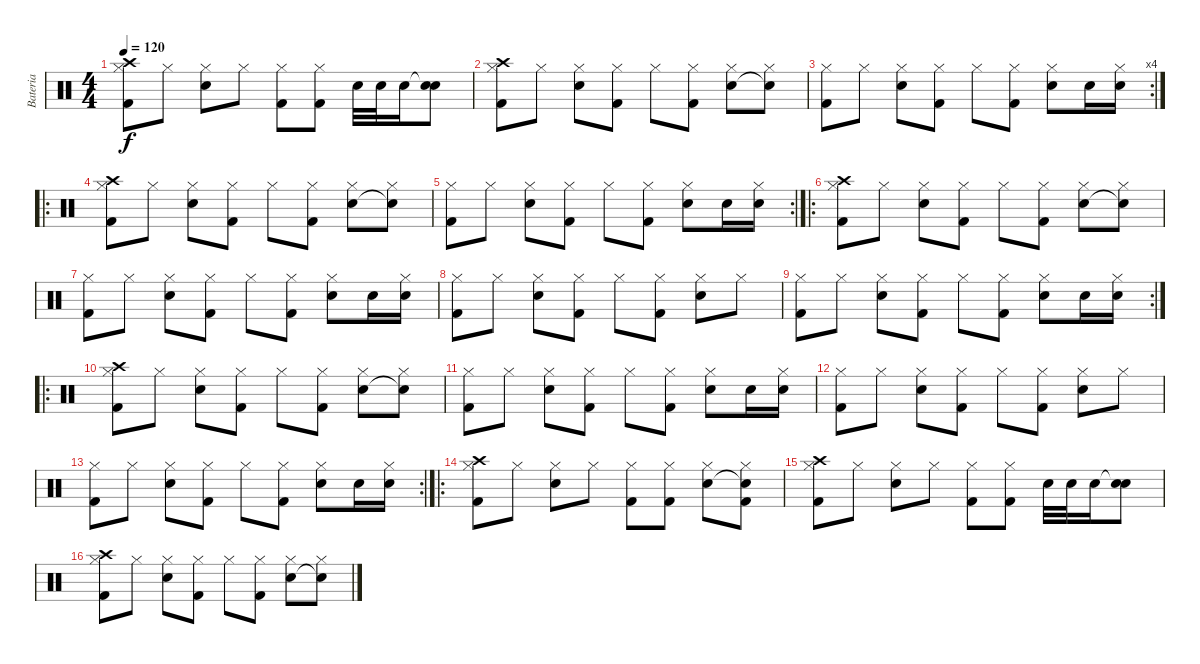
\track ("Bateria" "Bateria") {instrument percussion}
\staff {score}
\articulation defaults
\ts (4 4)
\tempo 120
\clef neutral
\ks c
("Hi-Hat (closed)" "Crash high (hit)" "Kick (hit) 2").8{dy f} "Hi-Hat (closed)".8 ("Hi-Hat (closed)" "Snare (hit) 2").8 "Hi-Hat (closed)".8 ("Hi-Hat (closed)" "Kick (hit) 2").8 ("Hi-Hat (closed)" "Kick (hit) 2").8 "Snare (hit) 2".32 "Snare (hit) 2".32 "Snare (hit) 2".16 ("Snare (hit)"{t} "Snare (hit) 2").8 |
("Hi-Hat (closed)" "Crash high (hit)" "Kick (hit) 2").8 "Hi-Hat (closed)".8 ("Hi-Hat (closed)" "Snare (hit) 2").8 ("Hi-Hat (closed)" "Kick (hit) 2").8 "Hi-Hat (closed)".8 ("Hi-Hat (closed)" "Kick (hit) 2").8 ("Hi-Hat (closed)" "Snare (hit) 2").8 ("Hi-Hat (closed)" "Snare (hit)"{t}).8 |
\rc 4
("Hi-Hat (closed)" "Kick (hit) 2").8 "Hi-Hat (closed)".8 ("Hi-Hat (closed)" "Snare (hit) 2").8 ("Hi-Hat (closed)" "Kick (hit) 2").8 "Hi-Hat (closed)".8 ("Hi-Hat (closed)" "Kick (hit) 2").8 ("Hi-Hat (closed)" "Snare (hit) 2").8 "Snare (hit) 2".16 ("Hi-Hat (closed)" "Snare (hit) 2").16 |
\ro
("Hi-Hat (closed)" "Crash high (hit)" "Kick (hit) 2").8 "Hi-Hat (closed)".8 ("Hi-Hat (closed)" "Snare (hit) 2").8 ("Hi-Hat (closed)" "Kick (hit) 2").8 "Hi-Hat (closed)".8 ("Hi-Hat (closed)" "Kick (hit) 2").8 ("Hi-Hat (closed)" "Snare (hit) 2").8 ("Hi-Hat (closed)" "Snare (hit)"{t}).8 |
\rc 2
("Hi-Hat (closed)" "Kick (hit) 2").8 "Hi-Hat (closed)".8 ("Hi-Hat (closed)" "Snare (hit) 2").8 ("Hi-Hat (closed)" "Kick (hit) 2").8 "Hi-Hat (closed)".8 ("Hi-Hat (closed)" "Kick (hit) 2").8 ("Hi-Hat (closed)" "Snare (hit) 2").8 "Snare (hit) 2".16 ("Hi-Hat (closed)" "Snare (hit) 2").16 |
\ro
("Hi-Hat (closed)" "Crash high (hit)" "Kick (hit) 2").8 "Hi-Hat (closed)".8 ("Hi-Hat (closed)" "Snare (hit) 2").8 ("Hi-Hat (closed)" "Kick (hit) 2").8 "Hi-Hat (closed)".8 ("Hi-Hat (closed)" "Kick (hit) 2").8 ("Hi-Hat (closed)" "Snare (hit) 2").8 ("Hi-Hat (closed)" "Snare (hit)"{t}).8 |
("Hi-Hat (closed)" "Kick (hit) 2").8 "Hi-Hat (closed)".8 ("Hi-Hat (closed)" "Snare (hit) 2").8 ("Hi-Hat (closed)" "Kick (hit) 2").8 "Hi-Hat (closed)".8 ("Hi-Hat (closed)" "Kick (hit) 2").8 ("Hi-Hat (closed)" "Snare (hit) 2").8 "Snare (hit) 2".16 ("Hi-Hat (closed)" "Snare (hit) 2").16 |
("Hi-Hat (closed)" "Kick (hit) 2").8 "Hi-Hat (closed)".8 ("Hi-Hat (closed)" "Snare (hit) 2").8 ("Hi-Hat (closed)" "Kick (hit) 2").8 "Hi-Hat (closed)".8 ("Hi-Hat (closed)" "Kick (hit) 2").8 ("Hi-Hat (closed)" "Snare (hit) 2").8 "Hi-Hat (closed)".8 |
\rc 2
("Hi-Hat (closed)" "Kick (hit) 2").8 "Hi-Hat (closed)".8 ("Hi-Hat (closed)" "Snare (hit) 2").8 ("Hi-Hat (closed)" "Kick (hit) 2").8 "Hi-Hat (closed)".8 ("Hi-Hat (closed)" "Kick (hit) 2").8 ("Hi-Hat (closed)" "Snare (hit) 2").8 "Snare (hit) 2".16 ("Hi-Hat (closed)" "Snare (hit) 2").16 |
\ro
("Hi-Hat (closed)" "Crash high (hit)" "Kick (hit) 2").8 "Hi-Hat (closed)".8 ("Hi-Hat (closed)" "Snare (hit) 2").8 ("Hi-Hat (closed)" "Kick (hit) 2").8 "Hi-Hat (closed)".8 ("Hi-Hat (closed)" "Kick (hit) 2").8 ("Hi-Hat (closed)" "Snare (hit) 2").8 ("Hi-Hat (closed)" "Snare (hit)"{t}).8 |
("Hi-Hat (closed)" "Kick (hit) 2").8 "Hi-Hat (closed)".8 ("Hi-Hat (closed)" "Snare (hit) 2").8 ("Hi-Hat (closed)" "Kick (hit) 2").8 "Hi-Hat (closed)".8 ("Hi-Hat (closed)" "Kick (hit) 2").8 ("Hi-Hat (closed)" "Snare (hit) 2").8 "Snare (hit) 2".16 ("Hi-Hat (closed)" "Snare (hit) 2").16 |
("Hi-Hat (closed)" "Kick (hit) 2").8 "Hi-Hat (closed)".8 ("Hi-Hat (closed)" "Snare (hit) 2").8 ("Hi-Hat (closed)" "Kick (hit) 2").8 "Hi-Hat (closed)".8 ("Hi-Hat (closed)" "Kick (hit) 2").8 ("Hi-Hat (closed)" "Snare (hit) 2").8 "Hi-Hat (closed)".8 |
\rc 2
("Hi-Hat (closed)" "Kick (hit) 2").8 "Hi-Hat (closed)".8 ("Hi-Hat (closed)" "Snare (hit) 2").8 ("Hi-Hat (closed)" "Kick (hit) 2").8 "Hi-Hat (closed)".8 ("Hi-Hat (closed)" "Kick (hit) 2").8 ("Hi-Hat (closed)" "Snare (hit) 2").8 "Snare (hit) 2".16 ("Hi-Hat (closed)" "Snare (hit) 2").16 |
\ro
("Hi-Hat (closed)" "Crash high (hit)" "Kick (hit) 2").8 "Hi-Hat (closed)".8 ("Hi-Hat (closed)" "Snare (hit) 2").8 "Hi-Hat (closed)".8 ("Hi-Hat (closed)" "Kick (hit) 2").8 ("Hi-Hat (closed)" "Kick (hit) 2").8 ("Hi-Hat (closed)" "Snare (hit) 2").8 ("Hi-Hat (closed)" "Snare (hit)"{t} "Kick (hit) 2").8 |
("Hi-Hat (closed)" "Crash high (hit)" "Kick (hit) 2").8 "Hi-Hat (closed)".8 ("Hi-Hat (closed)" "Snare (hit) 2").8 "Hi-Hat (closed)".8 ("Hi-Hat (closed)" "Kick (hit) 2").8 ("Hi-Hat (closed)" "Kick (hit) 2").8 "Snare (hit) 2".32 "Snare (hit) 2".32 "Snare (hit) 2".16 ("Snare (hit)"{t} "Snare (hit) 2").8 |
("Hi-Hat (closed)" "Crash high (hit)" "Kick (hit) 2").8 "Hi-Hat (closed)".8 ("Hi-Hat (closed)" "Snare (hit) 2").8 ("Hi-Hat (closed)" "Kick (hit) 2").8 "Hi-Hat (closed)".8 ("Hi-Hat (closed)" "Kick (hit) 2").8 ("Hi-Hat (closed)" "Snare (hit) 2").8 ("Hi-Hat (closed)" "Snare (hit)"{t}).8
